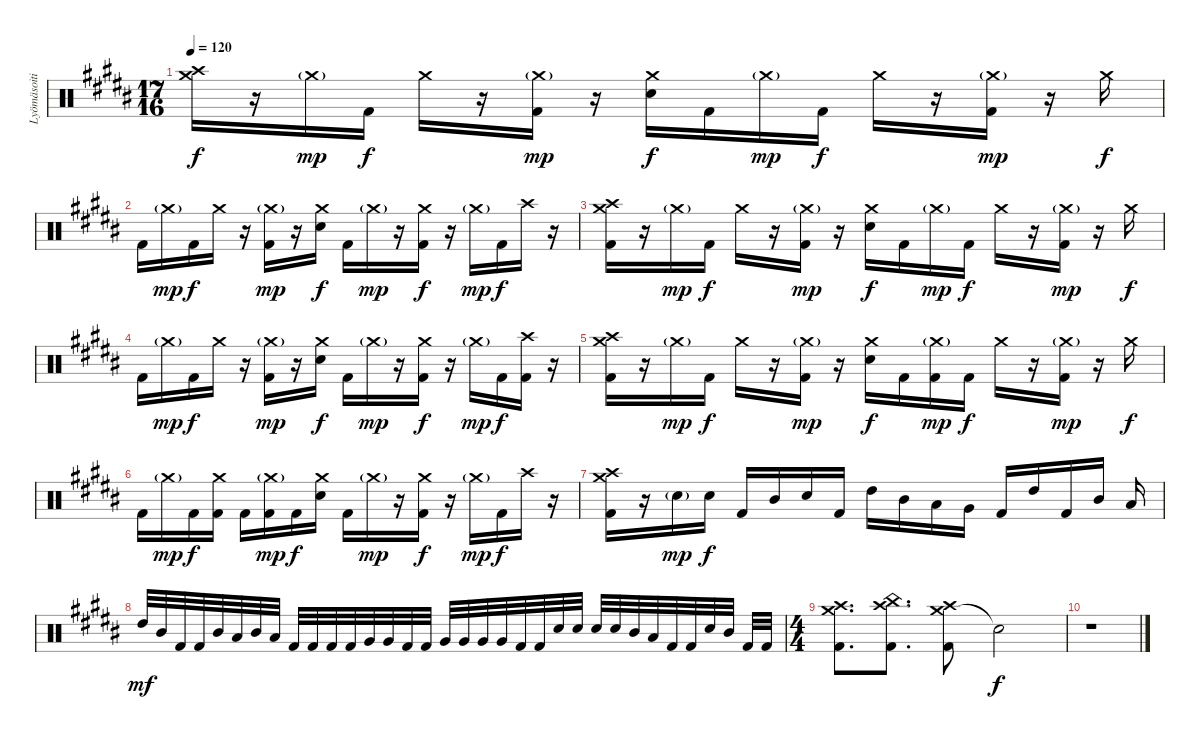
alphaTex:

\track ("Lyömäsoitin" "Lyömäsoiti") {instrument percussion}
\staff {score}
\articulation defaults
\ts (17 16)
\tempo 120
\clef neutral
\ks g#minor
("Crash medium (hit)" "Crash high (hit)").16{dy f} r.16 "Crash medium (hit)"{g}.16{dy mp} "Kick (hit) 2".16{dy f} "Crash medium (hit)".16 r.16 ("Crash medium (hit)"{g} "Kick (hit) 2").16{dy mp} r.16 ("Crash medium (hit)" "Electric Snare (hit)").16{dy f} "Kick (hit) 2".16 "Crash medium (hit)"{g}.16{dy mp} "Kick (hit) 2".16{dy f} "Crash medium (hit)".16 r.16 ("Crash medium (hit)"{g} "Kick (hit) 2").16{dy mp} r.16 "Crash medium (hit)".16{dy f} |
"Kick (hit) 2".16 "Crash medium (hit)"{g}.16{dy mp} "Kick (hit) 2".16{dy f} "Crash medium (hit)".16 r.16 ("Crash medium (hit)"{g} "Kick (hit) 2").16{dy mp} r.16 ("Crash medium (hit)" "Electric Snare (hit)").16{dy f} "Kick (hit) 2".16 "Crash medium (hit)"{g}.16{dy mp} r.16 ("Crash medium (hit)" "Kick (hit) 2").16{dy f} r.16 "Crash medium (hit)"{g}.16{dy mp} "Kick (hit) 2".16{dy f} "Crash high (hit)".16 r.16 |
("Crash medium (hit)" "Crash high (hit)" "Kick (hit) 2").16 r.16 "Crash medium (hit)"{g}.16{dy mp} "Kick (hit) 2".16{dy f} "Crash medium (hit)".16 r.16 ("Crash medium (hit)"{g} "Kick (hit) 2").16{dy mp} r.16 ("Crash medium (hit)" "Electric Snare (hit)").16{dy f} "Kick (hit) 2".16 "Crash medium (hit)"{g}.16{dy mp} "Kick (hit) 2".16{dy f} "Crash medium (hit)".16 r.16 ("Crash medium (hit)"{g} "Kick (hit) 2").16{dy mp} r.16 "Crash medium (hit)".16{dy f} |
"Kick (hit) 2".16 "Crash medium (hit)"{g}.16{dy mp} "Kick (hit) 2".16{dy f} "Crash medium (hit)".16 r.16 ("Crash medium (hit)"{g} "Kick (hit) 2").16{dy mp} r.16 ("Crash medium (hit)" "Electric Snare (hit)").16{dy f} "Kick (hit) 2".16 "Crash medium (hit)"{g}.16{dy mp} r.16 ("Crash medium (hit)" "Kick (hit) 2").16{dy f} r.16 "Crash medium (hit)"{g}.16{dy mp} "Kick (hit) 2".16{dy f} ("Crash high (hit)" "Kick (hit) 2").16 r.16 |
("Crash medium (hit)" "Crash high (hit)" "Kick (hit) 2").16 r.16 "Crash medium (hit)"{g}.16{dy mp} "Kick (hit) 2".16{dy f} "Crash medium (hit)".16 r.16 ("Crash medium (hit)"{g} "Kick (hit) 2").16{dy mp} r.16 ("Crash medium (hit)" "Electric Snare (hit)").16{dy f} "Kick (hit) 2".16 ("Crash medium (hit)"{g} "Kick (hit) 2").16{dy mp} "Kick (hit) 2".16{dy f} "Crash medium (hit)".16 r.16 ("Crash medium (hit)"{g} "Kick (hit) 2").16{dy mp} r.16 "Crash medium (hit)".16{dy f} |
"Kick (hit) 2".16 "Crash medium (hit)"{g}.16{dy mp} "Kick (hit) 2".16{dy f} ("Crash medium (hit)" "Kick (hit) 2").16 "Kick (hit) 2".16 ("Crash medium (hit)"{g} "Kick (hit) 2").16{dy mp} "Kick (hit) 2".16{dy f} ("Crash medium (hit)" "Electric Snare (hit)").16 "Kick (hit) 2".16 "Crash medium (hit)"{g}.16{dy mp} r.16 ("Crash medium (hit)" "Kick (hit) 2").16{dy f} r.16 "Crash medium (hit)"{g}.16{dy mp} "Kick (hit) 2".16{dy f} "Crash high (hit)".16 r.16 |
("Crash medium (hit)" "Crash high (hit)" "Kick (hit) 2").16 r.16 "Electric Snare (hit)"{g}.16{dy mp} "Electric Snare (hit)".16{dy f} "Kick (hit) 2".16 "Mid Tom (hit)".16 "Electric Snare (hit)".16 "Kick (hit) 2".16 "High Tom (hit)".16 "Mid Tom (hit)".16 "Low Tom (hit)".16 "Very Low Tom (hit)".16 "Kick (hit) 2".16 "High Tom (hit)".16 "Kick (hit) 2".16 "Mid Tom (hit)".16 "Low Tom (hit)".16 |
"High Tom (hit)".32{dy mf} "Mid Tom (hit)".32 "Kick (hit) 2".32 "Kick (hit) 2".32 "Mid Tom (hit)".32 "Low Tom (hit)".32 "Mid Tom (hit)".32 "Low Tom (hit)".32 "Kick (hit) 2".32 "Kick (hit) 2".32 "Kick (hit) 2".32 "Kick (hit) 2".32 "Very Low Tom (hit)".32 "Very Low Tom (hit)".32 "Kick (hit) 2".32 "Kick (hit) 2".32 "Very Low Tom (hit)".32 "Very Low Tom (hit)".32 "Very Low Tom (hit)".32 "Very Low Tom (hit)".32 "Kick (hit) 2".32 "Kick (hit) 2".32 "Electric Snare (hit)".32 "Electric Snare (hit)".32 "Electric Snare (hit)".32 "Electric Snare (hit)".32 "Mid Tom (hit)".32 "Low Tom (hit)".32 "Kick (hit) 2".32 "Kick (hit) 2".32 "Electric Snare (hit)".32 "Mid Tom (hit)".32 "Kick (hit) 2".32 "Kick (hit) 2".32 |
\ts (4 4)
("Crash medium (hit)" "Crash high (hit)" "Kick (hit) 2").8{d} ("China (hit)" "Crash high (hit)" "Kick (hit) 2").8{d} ("Crash medium (hit)" "Crash high (hit)" "Kick (hit) 2").8 "Snare (hit)"{t}.2{dy f} |
r.1
